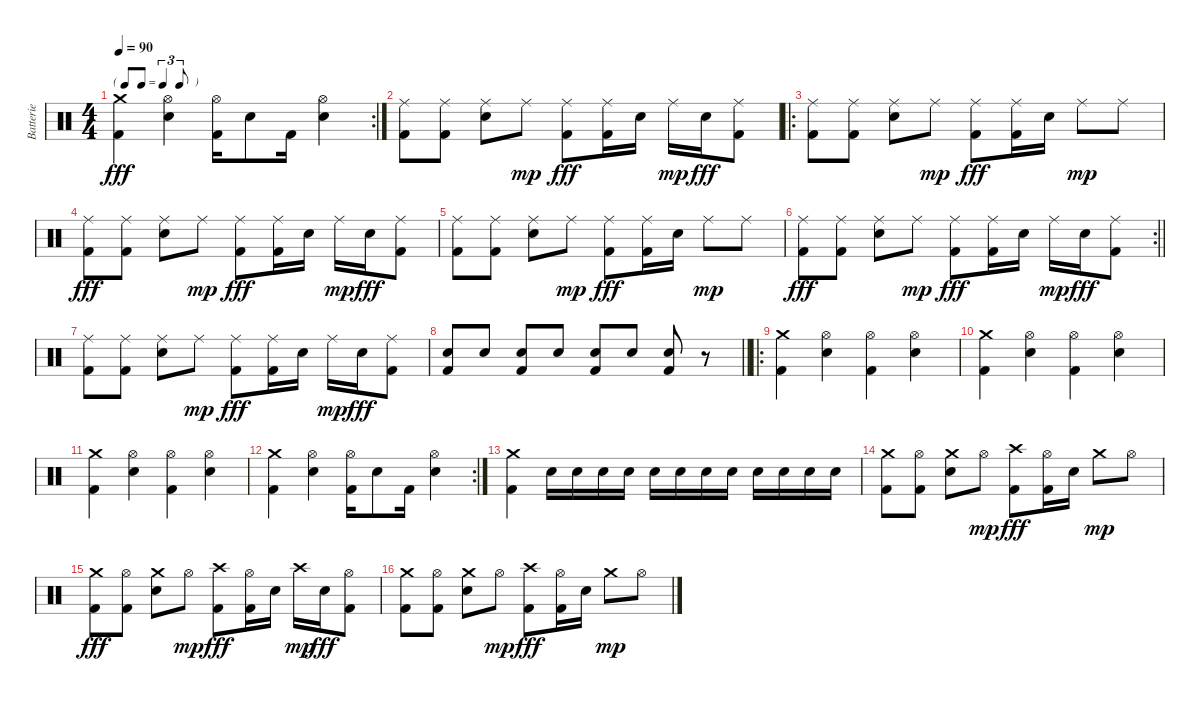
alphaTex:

\track ("Batterie" "Batterie") {instrument percussion}
\staff {score}
\articulation defaults
\rc 2
\ts (4 4)
\tf triplet8th
\tempo 90
\clef neutral
\ks c
("Crash medium (hit)" "Kick (hit) 2").4{dy fff} ("Hi-Hat (open)" "Electric Snare (hit)").4 ("Hi-Hat (open)" "Kick (hit) 2").16 "Electric Snare (hit)".8 "Kick (hit) 2".16 ("Hi-Hat (open)" "Electric Snare (hit)").4 |
("Ride (middle)" "Kick (hit) 2").8 ("Ride (middle)" "Kick (hit) 2").8 ("Ride (middle)" "Electric Snare (hit)").8 "Ride (middle)".8{dy mp} ("Ride (middle)" "Kick (hit) 2").8{dy fff} ("Ride (middle)" "Kick (hit) 2").16 "Electric Snare (hit)".16 "Ride (middle)".16{dy mp} "Electric Snare (hit)".16{dy fff} ("Ride (middle)" "Kick (hit) 2").8 |
\ro
("Ride (middle)" "Kick (hit) 2").8 ("Ride (middle)" "Kick (hit) 2").8 ("Ride (middle)" "Electric Snare (hit)").8 "Ride (middle)".8{dy mp} ("Ride (middle)" "Kick (hit) 2").8{dy fff} ("Ride (middle)" "Kick (hit) 2").16 "Electric Snare (hit)".16 "Ride (middle)".8{dy mp} "Ride (middle)".8 |
("Ride (middle)" "Kick (hit) 2").8{dy fff} ("Ride (middle)" "Kick (hit) 2").8 ("Ride (middle)" "Electric Snare (hit)").8 "Ride (middle)".8{dy mp} ("Ride (middle)" "Kick (hit) 2").8{dy fff} ("Ride (middle)" "Kick (hit) 2").16 "Electric Snare (hit)".16 "Ride (middle)".16{dy mp} "Electric Snare (hit)".16{dy fff} ("Ride (middle)" "Kick (hit) 2").8 |
("Ride (middle)" "Kick (hit) 2").8 ("Ride (middle)" "Kick (hit) 2").8 ("Ride (middle)" "Electric Snare (hit)").8 "Ride (middle)".8{dy mp} ("Ride (middle)" "Kick (hit) 2").8{dy fff} ("Ride (middle)" "Kick (hit) 2").16 "Electric Snare (hit)".16 "Ride (middle)".8{dy mp} "Ride (middle)".8 |
\rc 2
\barLineRight lightlight
("Ride (middle)" "Kick (hit) 2").8{dy fff} ("Ride (middle)" "Kick (hit) 2").8 ("Ride (middle)" "Electric Snare (hit)").8 "Ride (middle)".8{dy mp} ("Ride (middle)" "Kick (hit) 2").8{dy fff} ("Ride (middle)" "Kick (hit) 2").16 "Electric Snare (hit)".16 "Ride (middle)".16{dy mp} "Electric Snare (hit)".16{dy fff} ("Ride (middle)" "Kick (hit) 2").8 |
("Ride (middle)" "Kick (hit) 2").8 ("Ride (middle)" "Kick (hit) 2").8 ("Ride (middle)" "Electric Snare (hit)").8 "Ride (middle)".8{dy mp} ("Ride (middle)" "Kick (hit) 2").8{dy fff} ("Ride (middle)" "Kick (hit) 2").16 "Electric Snare (hit)".16 "Ride (middle)".16{dy mp} "Electric Snare (hit)".16{dy fff} ("Ride (middle)" "Kick (hit) 2").8 |
\barLineRight lightlight
("Electric Snare (hit)" "Kick (hit) 2").8 "Electric Snare (hit)".8 ("Electric Snare (hit)" "Kick (hit) 2").8 "Electric Snare (hit)".8 ("Electric Snare (hit)" "Kick (hit) 2").8 "Electric Snare (hit)".8 ("Electric Snare (hit)" "Kick (hit) 2").8 r.8 |
\ro
("Crash medium (hit)" "Kick (hit) 2").4 ("Hi-Hat (open)" "Electric Snare (hit)").4 ("Hi-Hat (open)" "Kick (hit) 2").4 ("Hi-Hat (open)" "Electric Snare (hit)").4 |
("Crash medium (hit)" "Kick (hit) 2").4 ("Hi-Hat (open)" "Electric Snare (hit)").4 ("Hi-Hat (open)" "Kick (hit) 2").4 ("Hi-Hat (open)" "Electric Snare (hit)").4 |
("Crash medium (hit)" "Kick (hit) 2").4 ("Hi-Hat (open)" "Electric Snare (hit)").4 ("Hi-Hat (open)" "Kick (hit) 2").4 ("Hi-Hat (open)" "Electric Snare (hit)").4 |
\rc 2
("Crash medium (hit)" "Kick (hit) 2").4 ("Hi-Hat (open)" "Electric Snare (hit)").4 ("Hi-Hat (open)" "Kick (hit) 2").16 "Electric Snare (hit)".8 "Kick (hit) 2".16 ("Hi-Hat (open)" "Electric Snare (hit)").4 |
("Crash medium (hit)" "Kick (hit) 2").4 "Electric Snare (hit)".16 "Electric Snare (hit)".16 "Electric Snare (hit)".16 "Electric Snare (hit)".16 "Electric Snare (hit)".16 "Electric Snare (hit)".16 "Electric Snare (hit)".16 "Electric Snare (hit)".16 "Electric Snare (hit)".16 "Electric Snare (hit)".16 "Electric Snare (hit)".16 "Electric Snare (hit)".16 |
("Crash medium (hit)" "Kick (hit) 2").8 ("Hi-Hat (open)" "Kick (hit) 2").8 ("Crash medium (hit)" "Electric Snare (hit)").8 "Hi-Hat (open)".8{dy mp} ("Crash high (hit)" "Kick (hit) 2").8{dy fff} ("Hi-Hat (open)" "Kick (hit) 2").16 "Electric Snare (hit)".16 "Crash medium (hit)".8{dy mp} "Hi-Hat (open)".8 |
("Crash medium (hit)" "Kick (hit) 2").8{dy fff} ("Hi-Hat (open)" "Kick (hit) 2").8 ("Crash medium (hit)" "Electric Snare (hit)").8 "Hi-Hat (open)".8{dy mp} ("Crash high (hit)" "Kick (hit) 2").8{dy fff} ("Hi-Hat (open)" "Kick (hit) 2").16 "Electric Snare (hit)".16 "Crash high (hit)".16{dy mp} "Electric Snare (hit)".16{dy fff} ("Hi-Hat (open)" "Kick (hit) 2").8 |
("Crash medium (hit)" "Kick (hit) 2").8 ("Hi-Hat (open)" "Kick (hit) 2").8 ("Crash medium (hit)" "Electric Snare (hit)").8 "Hi-Hat (open)".8{dy mp} ("Crash high (hit)" "Kick (hit) 2").8{dy fff} ("Hi-Hat (open)" "Kick (hit) 2").16 "Electric Snare (hit)".16 "Crash medium (hit)".8{dy mp} "Hi-Hat (open)".8
